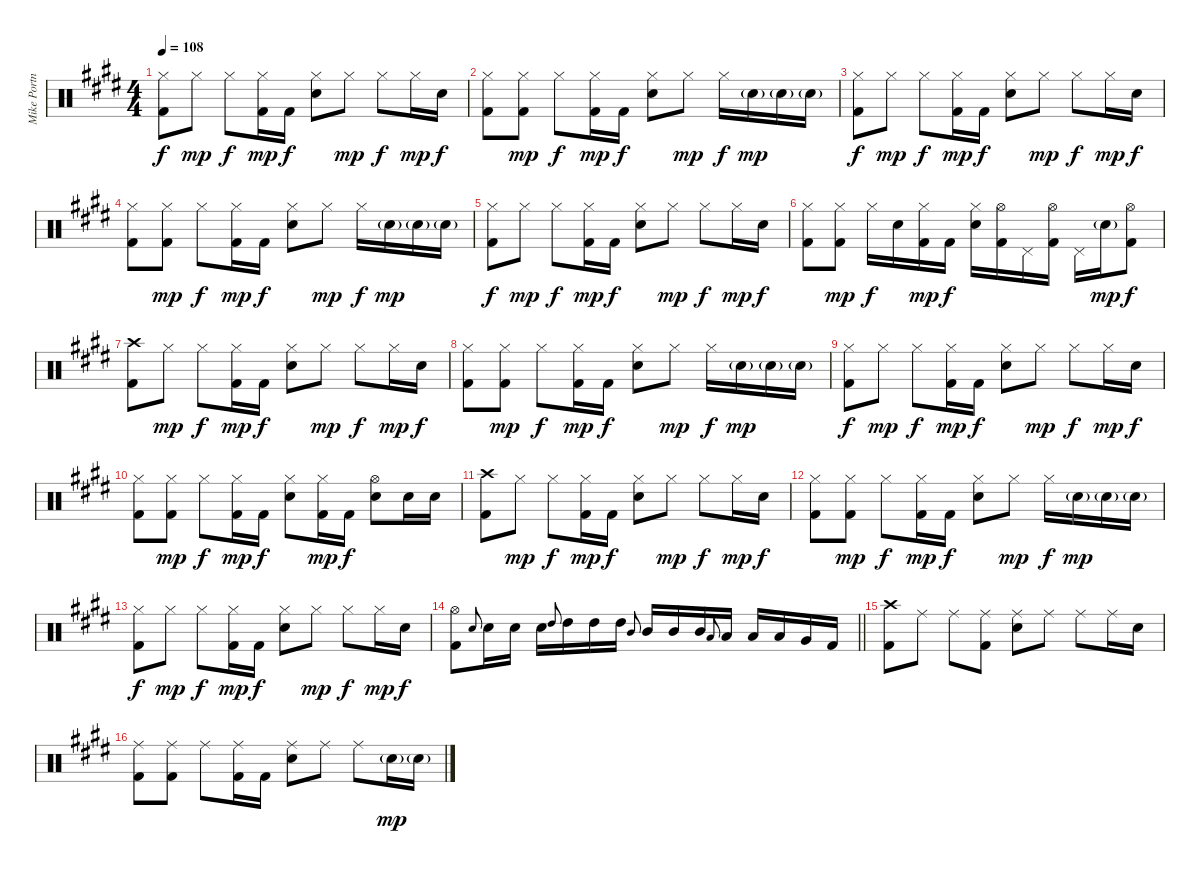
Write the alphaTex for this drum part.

\track ("Mike Portnoy" "Mike Portn") {instrument percussion}
\staff {score}
\articulation defaults
\ts (4 4)
\tempo 108
\clef neutral
\ks c#minor
("Hi-Hat (closed)" "Kick (hit) 2").8{dy f} "Hi-Hat (closed)".8{dy mp} "Hi-Hat (closed)".8{dy f} ("Hi-Hat (closed)" "Kick (hit) 2").16{dy mp} "Kick (hit) 2".16{dy f} ("Hi-Hat (closed)" "Snare (hit) 2").8 "Hi-Hat (closed)".8{dy mp} "Hi-Hat (closed)".8{dy f} "Hi-Hat (closed)".16{dy mp} "Snare (hit) 2".16{dy f} |
("Hi-Hat (closed)" "Kick (hit) 2").8 ("Hi-Hat (closed)" "Kick (hit) 2").8{dy mp} "Hi-Hat (closed)".8{dy f} ("Hi-Hat (closed)" "Kick (hit) 2").16{dy mp} "Kick (hit) 2".16{dy f} ("Hi-Hat (closed)" "Snare (hit) 2").8 "Hi-Hat (closed)".8{dy mp} "Hi-Hat (closed)".16{dy f} "Snare (hit) 2"{g}.16{dy mp} "Snare (hit) 2"{g}.16 "Snare (hit) 2"{g}.16 |
("Hi-Hat (closed)" "Kick (hit) 2").8{dy f} "Hi-Hat (closed)".8{dy mp} "Hi-Hat (closed)".8{dy f} ("Hi-Hat (closed)" "Kick (hit) 2").16{dy mp} "Kick (hit) 2".16{dy f} ("Hi-Hat (closed)" "Snare (hit) 2").8 "Hi-Hat (closed)".8{dy mp} "Hi-Hat (closed)".8{dy f} "Hi-Hat (closed)".16{dy mp} "Snare (hit) 2".16{dy f} |
("Hi-Hat (closed)" "Kick (hit) 2").8 ("Hi-Hat (closed)" "Kick (hit) 2").8{dy mp} "Hi-Hat (closed)".8{dy f} ("Hi-Hat (closed)" "Kick (hit) 2").16{dy mp} "Kick (hit) 2".16{dy f} ("Hi-Hat (closed)" "Snare (hit) 2").8 "Hi-Hat (closed)".8{dy mp} "Hi-Hat (closed)".16{dy f} "Snare (hit) 2"{g}.16{dy mp} "Snare (hit) 2"{g}.16 "Snare (hit) 2"{g}.16 |
("Hi-Hat (closed)" "Kick (hit) 2").8{dy f} "Hi-Hat (closed)".8{dy mp} "Hi-Hat (closed)".8{dy f} ("Hi-Hat (closed)" "Kick (hit) 2").16{dy mp} "Kick (hit) 2".16{dy f} ("Hi-Hat (closed)" "Snare (hit) 2").8 "Hi-Hat (closed)".8{dy mp} "Hi-Hat (closed)".8{dy f} "Hi-Hat (closed)".16{dy mp} "Snare (hit) 2".16{dy f} |
("Hi-Hat (closed)" "Kick (hit) 2").8 ("Hi-Hat (closed)" "Kick (hit) 2").8{dy mp} "Hi-Hat (closed)".16{dy f} "Snare (hit) 2".16 ("Hi-Hat (closed)" "Kick (hit) 2").16{dy mp} "Kick (hit) 2".16{dy f} ("Hi-Hat (closed)" "Snare (hit) 2").16 ("Hi-Hat (open)" "Kick (hit) 2").16 "Pedal Hi-Hat (hit)".16 ("Hi-Hat (open)" "Kick (hit) 2").16 "Pedal Hi-Hat (hit)".16 "Snare (hit) 2"{g}.16{dy mp} ("Hi-Hat (open)" "Kick (hit) 2").8{dy f} |
("Crash high (hit)" "Kick (hit) 2").8 "Hi-Hat (closed)".8{dy mp} "Hi-Hat (closed)".8{dy f} ("Hi-Hat (closed)" "Kick (hit) 2").16{dy mp} "Kick (hit) 2".16{dy f} ("Hi-Hat (closed)" "Snare (hit) 2").8 "Hi-Hat (closed)".8{dy mp} "Hi-Hat (closed)".8{dy f} "Hi-Hat (closed)".16{dy mp} "Snare (hit) 2".16{dy f} |
("Hi-Hat (closed)" "Kick (hit) 2").8 ("Hi-Hat (closed)" "Kick (hit) 2").8{dy mp} "Hi-Hat (closed)".8{dy f} ("Hi-Hat (closed)" "Kick (hit) 2").16{dy mp} "Kick (hit) 2".16{dy f} ("Hi-Hat (closed)" "Snare (hit) 2").8 "Hi-Hat (closed)".8{dy mp} "Hi-Hat (closed)".16{dy f} "Snare (hit) 2"{g}.16{dy mp} "Snare (hit) 2"{g}.16 "Snare (hit) 2"{g}.16 |
("Hi-Hat (closed)" "Kick (hit) 2").8{dy f} "Hi-Hat (closed)".8{dy mp} "Hi-Hat (closed)".8{dy f} ("Hi-Hat (closed)" "Kick (hit) 2").16{dy mp} "Kick (hit) 2".16{dy f} ("Hi-Hat (closed)" "Snare (hit) 2").8 "Hi-Hat (closed)".8{dy mp} "Hi-Hat (closed)".8{dy f} "Hi-Hat (closed)".16{dy mp} "Snare (hit) 2".16{dy f} |
("Hi-Hat (closed)" "Kick (hit) 2").8 ("Hi-Hat (closed)" "Kick (hit) 2").8{dy mp} "Hi-Hat (closed)".8{dy f} ("Hi-Hat (closed)" "Kick (hit) 2").16{dy mp} "Kick (hit) 2".16{dy f} ("Hi-Hat (closed)" "Snare (hit) 2").8 ("Hi-Hat (closed)" "Kick (hit) 2").16{dy mp} "Kick (hit) 2".16{dy f} ("Hi-Hat (open)" "Snare (hit) 2").8 "Snare (hit) 2".16 "Snare (hit) 2".16 |
("Crash high (hit)" "Kick (hit) 2").8 "Hi-Hat (closed)".8{dy mp} "Hi-Hat (closed)".8{dy f} ("Hi-Hat (closed)" "Kick (hit) 2").16{dy mp} "Kick (hit) 2".16{dy f} ("Hi-Hat (closed)" "Snare (hit) 2").8 "Hi-Hat (closed)".8{dy mp} "Hi-Hat (closed)".8{dy f} "Hi-Hat (closed)".16{dy mp} "Snare (hit) 2".16{dy f} |
("Hi-Hat (closed)" "Kick (hit) 2").8 ("Hi-Hat (closed)" "Kick (hit) 2").8{dy mp} "Hi-Hat (closed)".8{dy f} ("Hi-Hat (closed)" "Kick (hit) 2").16{dy mp} "Kick (hit) 2".16{dy f} ("Hi-Hat (closed)" "Snare (hit) 2").8 "Hi-Hat (closed)".8{dy mp} "Hi-Hat (closed)".16{dy f} "Snare (hit) 2"{g}.16{dy mp} "Snare (hit) 2"{g}.16 "Snare (hit) 2"{g}.16 |
("Hi-Hat (closed)" "Kick (hit) 2").8{dy f} "Hi-Hat (closed)".8{dy mp} "Hi-Hat (closed)".8{dy f} ("Hi-Hat (closed)" "Kick (hit) 2").16{dy mp} "Kick (hit) 2".16{dy f} ("Hi-Hat (closed)" "Snare (hit) 2").8 "Hi-Hat (closed)".8{dy mp} "Hi-Hat (closed)".8{dy f} "Hi-Hat (closed)".16{dy mp} "Snare (hit) 2".16{dy f} |
\barLineRight lightlight
("Hi-Hat (open)" "Kick (hit) 2").8 "Snare (hit) 2".8{gr onbeat} "Snare (hit) 2".16 "Snare (hit) 2".16 "Snare (hit) 2".16 "High Tom (hit)".8{gr onbeat} "High Tom (hit)".16 "High Tom (hit)".16 "High Tom (hit)".16 "Mid Tom (hit)".8{gr onbeat} "Mid Tom (hit)".16 "Mid Tom (hit)".16 "Mid Tom (hit)".16 "Low Tom (hit)".8{gr onbeat} "Low Tom (hit)".16 "Low Tom (hit)".16 "Low Tom (hit)".16 "Very Low Tom (hit)".16 "Kick (hit) 2".16 |
("Crash high (hit)" "Kick (hit) 2").8 "Ride (middle)".8 "Ride (middle)".8 ("Ride (middle)" "Kick (hit) 2").8 ("Ride (middle)" "Snare (hit) 2").8 "Ride (middle)".8 "Ride (middle)".8 "Ride (middle)".16 "Snare (hit) 2".16 |
("Ride (middle)" "Kick (hit) 2").8 ("Ride (middle)" "Kick (hit) 2").8 "Ride (middle)".8 ("Ride (middle)" "Kick (hit) 2").16 "Kick (hit) 2".16 ("Ride (middle)" "Snare (hit) 2").8 "Ride (middle)".8 "Ride (middle)".8 "Snare (hit) 2"{g}.16{dy mp} "Snare (hit) 2"{g}.16
